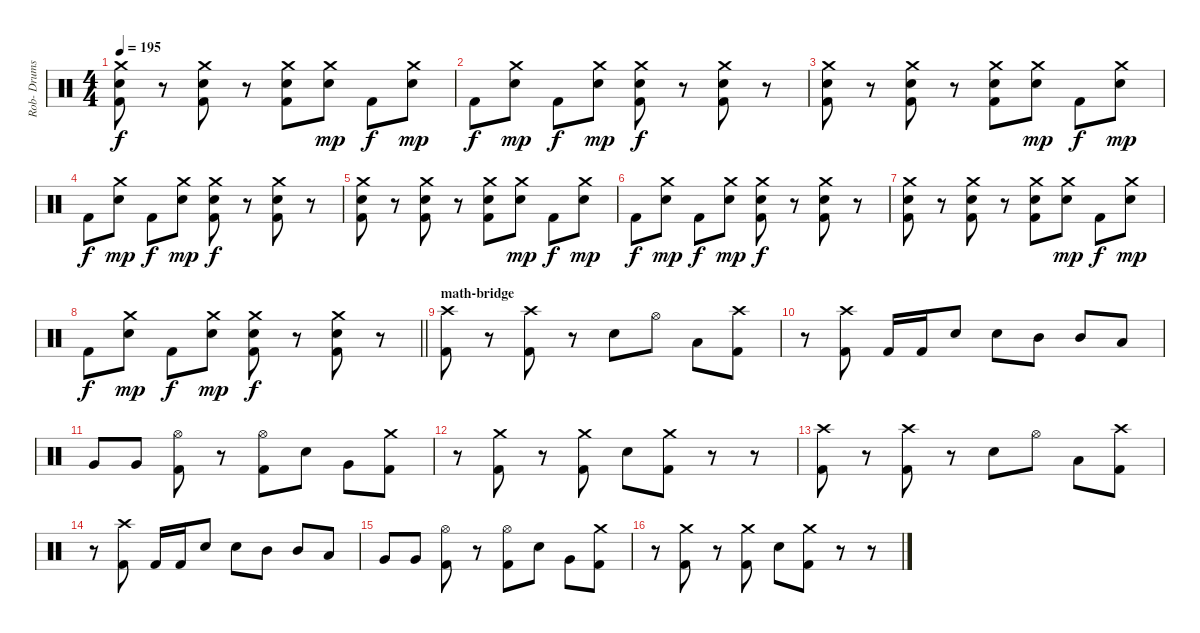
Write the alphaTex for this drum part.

\track ("Rob- Drums" "Rob- Drums") {instrument percussion}
\staff {score}
\articulation defaults
\ts (4 4)
\tempo 195
\clef neutral
\ks c
("Crash medium (hit)" "Electric Snare (hit)" "Kick (hit) 2").8{dy f} r.8 ("Crash medium (hit)" "Electric Snare (hit)" "Kick (hit) 2").8 r.8 ("Crash medium (hit)" "Electric Snare (hit)" "Kick (hit) 2").8 ("Crash medium (hit)" "Electric Snare (hit)").8{dy mp} "Kick (hit) 2".8{dy f} ("Crash medium (hit)" "Electric Snare (hit)").8{dy mp} |
"Kick (hit) 2".8{dy f} ("Crash medium (hit)" "Electric Snare (hit)").8{dy mp} "Kick (hit) 2".8{dy f} ("Crash medium (hit)" "Electric Snare (hit)").8{dy mp} ("Crash medium (hit)" "Electric Snare (hit)" "Kick (hit) 2").8{dy f} r.8 ("Crash medium (hit)" "Electric Snare (hit)" "Kick (hit) 2").8 r.8 |
("Crash medium (hit)" "Electric Snare (hit)" "Kick (hit) 2").8 r.8 ("Crash medium (hit)" "Electric Snare (hit)" "Kick (hit) 2").8 r.8 ("Crash medium (hit)" "Electric Snare (hit)" "Kick (hit) 2").8 ("Crash medium (hit)" "Electric Snare (hit)").8{dy mp} "Kick (hit) 2".8{dy f} ("Crash medium (hit)" "Electric Snare (hit)").8{dy mp} |
"Kick (hit) 2".8{dy f} ("Crash medium (hit)" "Electric Snare (hit)").8{dy mp} "Kick (hit) 2".8{dy f} ("Crash medium (hit)" "Electric Snare (hit)").8{dy mp} ("Crash medium (hit)" "Electric Snare (hit)" "Kick (hit) 2").8{dy f} r.8 ("Crash medium (hit)" "Electric Snare (hit)" "Kick (hit) 2").8 r.8 |
("Crash medium (hit)" "Electric Snare (hit)" "Kick (hit) 2").8 r.8 ("Crash medium (hit)" "Electric Snare (hit)" "Kick (hit) 2").8 r.8 ("Crash medium (hit)" "Electric Snare (hit)" "Kick (hit) 2").8 ("Crash medium (hit)" "Electric Snare (hit)").8{dy mp} "Kick (hit) 2".8{dy f} ("Crash medium (hit)" "Electric Snare (hit)").8{dy mp} |
"Kick (hit) 2".8{dy f} ("Crash medium (hit)" "Electric Snare (hit)").8{dy mp} "Kick (hit) 2".8{dy f} ("Crash medium (hit)" "Electric Snare (hit)").8{dy mp} ("Crash medium (hit)" "Electric Snare (hit)" "Kick (hit) 2").8{dy f} r.8 ("Crash medium (hit)" "Electric Snare (hit)" "Kick (hit) 2").8 r.8 |
("Crash medium (hit)" "Electric Snare (hit)" "Kick (hit) 2").8 r.8 ("Crash medium (hit)" "Electric Snare (hit)" "Kick (hit) 2").8 r.8 ("Crash medium (hit)" "Electric Snare (hit)" "Kick (hit) 2").8 ("Crash medium (hit)" "Electric Snare (hit)").8{dy mp} "Kick (hit) 2".8{dy f} ("Crash medium (hit)" "Electric Snare (hit)").8{dy mp} |
\barLineRight lightlight "Kick (hit) 2".8{dy f}
("Crash medium (hit)" "Electric Snare (hit)").8{dy mp} "Kick (hit) 2".8{dy f} ("Crash medium (hit)" "Electric Snare (hit)").8{dy mp} ("Crash medium (hit)" "Electric Snare (hit)" "Kick (hit) 2").8{dy f} r.8 ("Crash medium (hit)" "Electric Snare (hit)" "Kick (hit) 2").8 r.8 |
\section ("" "math-bridge")
("Crash high (hit)" "Kick (hit) 2").8 r.8 ("Crash high (hit)" "Kick (hit) 2").8 r.8 "Electric Snare (hit)".8 "Hi-Hat (open)".8 "Low Tom (hit)".8 ("Crash high (hit)" "Kick (hit) 2").8 |
r.8 ("Crash high (hit)" "Kick (hit) 2").8 "Kick (hit) 2".16 "Kick (hit) 2".16 "Electric Snare (hit)".8 "Electric Snare (hit)".8 "Mid Tom (hit)".8 "Mid Tom (hit)".8 "Low Tom (hit)".8 |
"Very Low Tom (hit)".8 "Very Low Tom (hit)".8 ("Hi-Hat (open)" "Kick (hit) 2").8 r.8 ("Hi-Hat (open)" "Kick (hit) 2").8 "Electric Snare (hit)".8 "Very Low Tom (hit)".8 ("Crash medium (hit)" "Kick (hit) 2").8 |
r.8 ("Crash medium (hit)" "Kick (hit) 2").8 r.8 ("Crash medium (hit)" "Kick (hit) 2").8 "Electric Snare (hit)".8 ("Crash medium (hit)" "Kick (hit) 2").8 r.8 r.8 |
("Crash high (hit)" "Kick (hit) 2").8 r.8 ("Crash high (hit)" "Kick (hit) 2").8 r.8 "Electric Snare (hit)".8 "Hi-Hat (open)".8 "Low Tom (hit)".8 ("Crash high (hit)" "Kick (hit) 2").8 |
r.8 ("Crash high (hit)" "Kick (hit) 2").8 "Kick (hit) 2".16 "Kick (hit) 2".16 "Electric Snare (hit)".8 "Electric Snare (hit)".8 "Mid Tom (hit)".8 "Mid Tom (hit)".8 "Low Tom (hit)".8 |
"Very Low Tom (hit)".8 "Very Low Tom (hit)".8 ("Hi-Hat (open)" "Kick (hit) 2").8 r.8 ("Hi-Hat (open)" "Kick (hit) 2").8 "Electric Snare (hit)".8 "Very Low Tom (hit)".8 ("Crash medium (hit)" "Kick (hit) 2").8 |
r.8 ("Crash medium (hit)" "Kick (hit) 2").8 r.8 ("Crash medium (hit)" "Kick (hit) 2").8 "Electric Snare (hit)".8 ("Crash medium (hit)" "Kick (hit) 2").8 r.8 r.8
